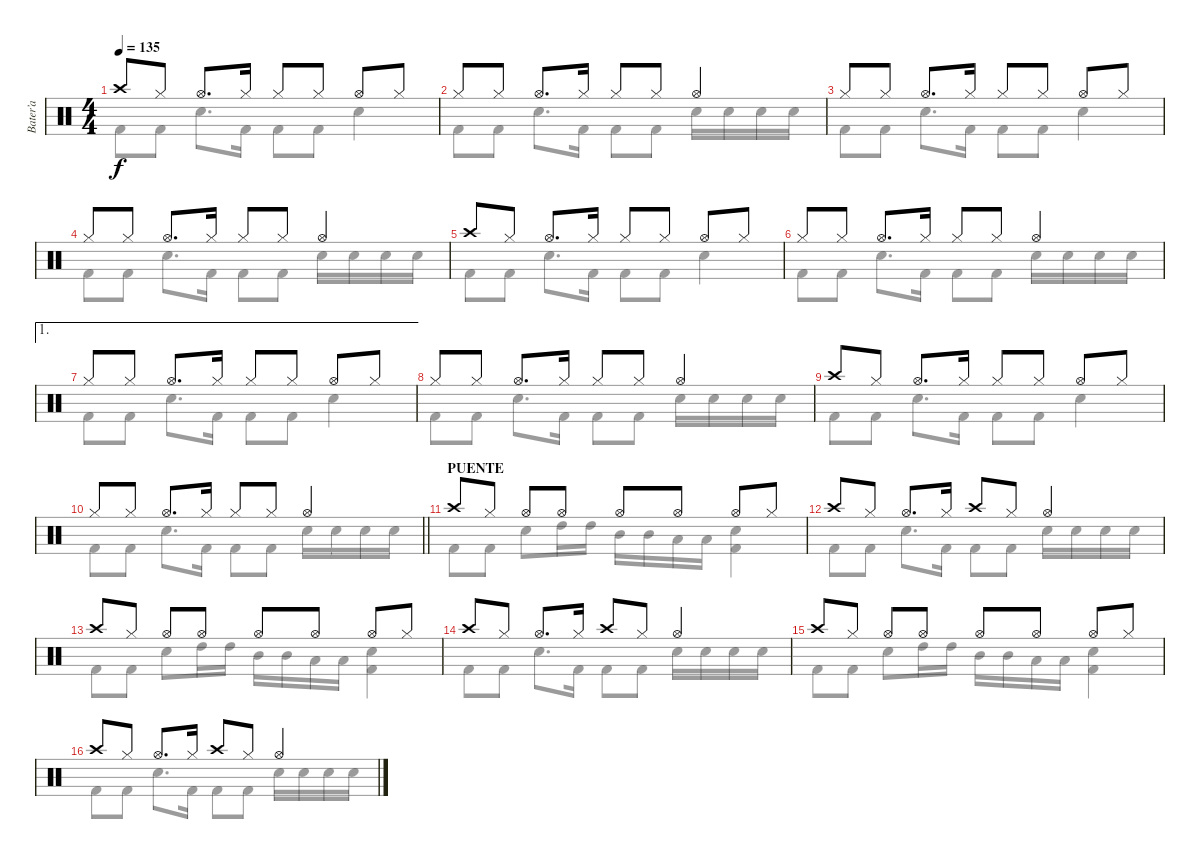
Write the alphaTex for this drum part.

\track ("Bater’a" "Bater’a") {instrument percussion}
\staff {score}
\articulation defaults
\voice
\ts (4 4)
\tempo 135
\clef neutral
\ks c "Crash high (hit)".8{dy f} "Hi-Hat (closed)".8 "Hi-Hat (open)".8{d} "Hi-Hat (closed)".16 "Hi-Hat (closed)".8 "Hi-Hat (closed)".8 "Hi-Hat (open)".8 "Hi-Hat (closed)".8
|
"Hi-Hat (closed)".8 "Hi-Hat (closed)".8 "Hi-Hat (open)".8{d} "Hi-Hat (closed)".16 "Hi-Hat (closed)".8 "Hi-Hat (closed)".8 "Hi-Hat (open)".4 |
"Hi-Hat (closed)".8 "Hi-Hat (closed)".8 "Hi-Hat (open)".8{d} "Hi-Hat (closed)".16 "Hi-Hat (closed)".8 "Hi-Hat (closed)".8 "Hi-Hat (open)".8 "Hi-Hat (closed)".8 |
"Hi-Hat (closed)".8 "Hi-Hat (closed)".8 "Hi-Hat (open)".8{d} "Hi-Hat (closed)".16 "Hi-Hat (closed)".8 "Hi-Hat (closed)".8 "Hi-Hat (open)".4 |
"Crash high (hit)".8 "Hi-Hat (closed)".8 "Hi-Hat (open)".8{d} "Hi-Hat (closed)".16 "Hi-Hat (closed)".8 "Hi-Hat (closed)".8 "Hi-Hat (open)".8 "Hi-Hat (closed)".8 |
"Hi-Hat (closed)".8 "Hi-Hat (closed)".8 "Hi-Hat (open)".8{d} "Hi-Hat (closed)".16 "Hi-Hat (closed)".8 "Hi-Hat (closed)".8 "Hi-Hat (open)".4 |
\ae 1 "Hi-Hat (closed)".8 "Hi-Hat (closed)".8 "Hi-Hat (open)".8{d} "Hi-Hat (closed)".16 "Hi-Hat (closed)".8 "Hi-Hat (closed)".8 "Hi-Hat (open)".8 "Hi-Hat (closed)".8
|
"Hi-Hat (closed)".8 "Hi-Hat (closed)".8 "Hi-Hat (open)".8{d} "Hi-Hat (closed)".16 "Hi-Hat (closed)".8 "Hi-Hat (closed)".8 "Hi-Hat (open)".4 |
"Crash high (hit)".8 "Hi-Hat (closed)".8 "Hi-Hat (open)".8{d} "Hi-Hat (closed)".16 "Hi-Hat (closed)".8 "Hi-Hat (closed)".8 "Hi-Hat (open)".8 "Hi-Hat (closed)".8 |
\barLineRight lightlight "Hi-Hat (closed)".8 "Hi-Hat (closed)".8 "Hi-Hat (open)".8{d} "Hi-Hat (closed)".16 "Hi-Hat (closed)".8 "Hi-Hat (closed)".8 "Hi-Hat (open)".4
|
\section ("" "PUENTE")
"Crash high (hit)".8 "Hi-Hat (closed)".8 "Hi-Hat (open)".8 "Hi-Hat (open)".8 "Hi-Hat (open)".8 "Hi-Hat (open)".8 "Hi-Hat (open)".8 "Hi-Hat (closed)".8 |
"Crash high (hit)".8 "Hi-Hat (closed)".8 "Hi-Hat (open)".8{d} "Hi-Hat (closed)".16 "Crash high (hit)".8 "Hi-Hat (closed)".8 "Hi-Hat (open)".4 |
"Crash high (hit)".8 "Hi-Hat (closed)".8 "Hi-Hat (open)".8 "Hi-Hat (open)".8 "Hi-Hat (open)".8 "Hi-Hat (open)".8 "Hi-Hat (open)".8 "Hi-Hat (closed)".8 |
"Crash high (hit)".8 "Hi-Hat (closed)".8 "Hi-Hat (open)".8{d} "Hi-Hat (closed)".16 "Crash high (hit)".8 "Hi-Hat (closed)".8 "Hi-Hat (open)".4 |
"Crash high (hit)".8 "Hi-Hat (closed)".8 "Hi-Hat (open)".8 "Hi-Hat (open)".8 "Hi-Hat (open)".8 "Hi-Hat (open)".8 "Hi-Hat (open)".8 "Hi-Hat (closed)".8 |
"Crash high (hit)".8 "Hi-Hat (closed)".8 "Hi-Hat (open)".8{d} "Hi-Hat (closed)".16 "Crash high (hit)".8 "Hi-Hat (closed)".8 "Hi-Hat (open)".4
\voice
\clef neutral
\ottava regular
\simile none
\ks c "Kick (hit) 2".8{dy f} "Kick (hit) 2".8 "Snare (hit) 2".8{d} "Kick (hit) 2".16 "Kick (hit) 2".8 "Kick (hit) 2".8 "Snare (hit) 2".4
|
"Kick (hit) 2".8 "Kick (hit) 2".8 "Snare (hit) 2".8{d} "Kick (hit) 2".16 "Kick (hit) 2".8 "Kick (hit) 2".8 "Snare (hit) 2".16 "Snare (hit) 2".16 "Snare (hit) 2".16 "Snare (hit) 2".16 |
"Kick (hit) 2".8 "Kick (hit) 2".8 "Snare (hit) 2".8{d} "Kick (hit) 2".16 "Kick (hit) 2".8 "Kick (hit) 2".8 "Snare (hit) 2".4 |
"Kick (hit) 2".8 "Kick (hit) 2".8 "Snare (hit) 2".8{d} "Kick (hit) 2".16 "Kick (hit) 2".8 "Kick (hit) 2".8 "Snare (hit) 2".16 "Snare (hit) 2".16 "Snare (hit) 2".16 "Snare (hit) 2".16 |
"Kick (hit) 2".8 "Kick (hit) 2".8 "Snare (hit) 2".8{d} "Kick (hit) 2".16 "Kick (hit) 2".8 "Kick (hit) 2".8 "Snare (hit) 2".4 |
"Kick (hit) 2".8 "Kick (hit) 2".8 "Snare (hit) 2".8{d} "Kick (hit) 2".16 "Kick (hit) 2".8 "Kick (hit) 2".8 "Snare (hit) 2".16 "Snare (hit) 2".16 "Snare (hit) 2".16 "Snare (hit) 2".16 |
"Kick (hit) 2".8 "Kick (hit) 2".8 "Snare (hit) 2".8{d} "Kick (hit) 2".16 "Kick (hit) 2".8 "Kick (hit) 2".8 "Snare (hit) 2".4 |
"Kick (hit) 2".8 "Kick (hit) 2".8 "Snare (hit) 2".8{d} "Kick (hit) 2".16 "Kick (hit) 2".8 "Kick (hit) 2".8 "Snare (hit) 2".16 "Snare (hit) 2".16 "Snare (hit) 2".16 "Snare (hit) 2".16 |
"Kick (hit) 2".8 "Kick (hit) 2".8 "Snare (hit) 2".8{d} "Kick (hit) 2".16 "Kick (hit) 2".8 "Kick (hit) 2".8 "Snare (hit) 2".4 |
\barLineRight lightlight "Kick (hit) 2".8 "Kick (hit) 2".8 "Snare (hit) 2".8{d} "Kick (hit) 2".16 "Kick (hit) 2".8 "Kick (hit) 2".8 "Snare (hit) 2".16 "Snare (hit) 2".16 "Snare (hit) 2".16 "Snare (hit) 2".16
|
"Kick (hit) 2".8 "Kick (hit) 2".8 "Snare (hit) 2".8 "High Tom (hit)".16 "High Tom (hit)".16 "Mid Tom (hit)".16 "Mid Tom (hit)".16 "Low Tom (hit)".16 "Low Tom (hit)".16 ("Snare (hit) 2" "Kick (hit) 2").4 |
"Kick (hit) 2".8 "Kick (hit) 2".8 "Snare (hit) 2".8{d} "Kick (hit) 2".16 "Kick (hit) 2".8 "Kick (hit) 2".8 "Snare (hit) 2".16 "Snare (hit) 2".16 "Snare (hit) 2".16 "Snare (hit) 2".16 |
"Kick (hit) 2".8 "Kick (hit) 2".8 "Snare (hit) 2".8 "High Tom (hit)".16 "High Tom (hit)".16 "Mid Tom (hit)".16 "Mid Tom (hit)".16 "Low Tom (hit)".16 "Low Tom (hit)".16 ("Snare (hit) 2" "Kick (hit) 2").4 |
"Kick (hit) 2".8 "Kick (hit) 2".8 "Snare (hit) 2".8{d} "Kick (hit) 2".16 "Kick (hit) 2".8 "Kick (hit) 2".8 "Snare (hit) 2".16 "Snare (hit) 2".16 "Snare (hit) 2".16 "Snare (hit) 2".16 |
"Kick (hit) 2".8 "Kick (hit) 2".8 "Snare (hit) 2".8 "High Tom (hit)".16 "High Tom (hit)".16 "Mid Tom (hit)".16 "Mid Tom (hit)".16 "Low Tom (hit)".16 "Low Tom (hit)".16 ("Snare (hit) 2" "Kick (hit) 2").4 |
"Kick (hit) 2".8 "Kick (hit) 2".8 "Snare (hit) 2".8{d} "Kick (hit) 2".16 "Kick (hit) 2".8 "Kick (hit) 2".8 "Snare (hit) 2".16 "Snare (hit) 2".16 "Snare (hit) 2".16 "Snare (hit) 2".16
